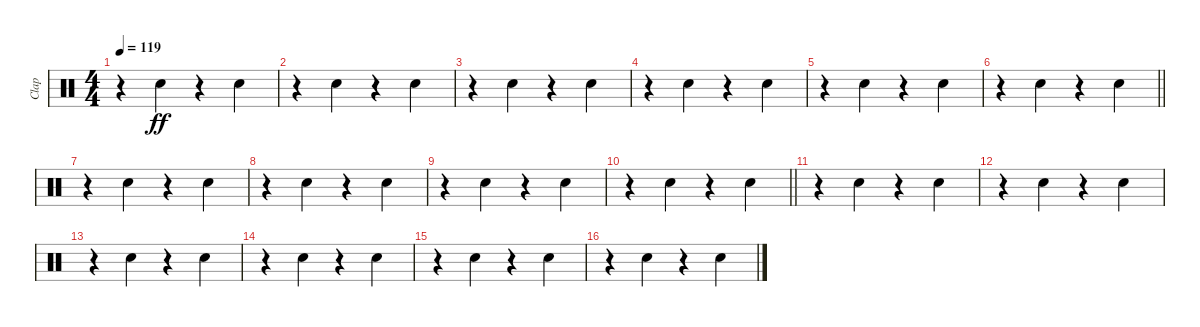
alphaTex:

\track ("Clap" "Clap") {instrument percussion}
\staff {score}
\articulation defaults
\ts (4 4)
\tempo 119
\clef neutral
\ks c
r.4{dy ff} "Hand Clap (hit)".4 r.4 "Hand Clap (hit)".4 |
r.4 "Hand Clap (hit)".4 r.4 "Hand Clap (hit)".4 |
r.4 "Hand Clap (hit)".4 r.4 "Hand Clap (hit)".4 |
r.4 "Hand Clap (hit)".4 r.4 "Hand Clap (hit)".4 |
r.4 "Hand Clap (hit)".4 r.4 "Hand Clap (hit)".4 |
\barLineRight lightlight
r.4 "Hand Clap (hit)".4 r.4 "Hand Clap (hit)".4 |
r.4 "Hand Clap (hit)".4 r.4 "Hand Clap (hit)".4 |
r.4 "Hand Clap (hit)".4 r.4 "Hand Clap (hit)".4 |
r.4 "Hand Clap (hit)".4 r.4 "Hand Clap (hit)".4 |
\barLineRight lightlight
r.4 "Hand Clap (hit)".4 r.4 "Hand Clap (hit)".4 |
r.4 "Hand Clap (hit)".4 r.4 "Hand Clap (hit)".4 |
r.4 "Hand Clap (hit)".4 r.4 "Hand Clap (hit)".4 |
r.4 "Hand Clap (hit)".4 r.4 "Hand Clap (hit)".4 |
r.4 "Hand Clap (hit)".4 r.4 "Hand Clap (hit)".4 |
r.4 "Hand Clap (hit)".4 r.4 "Hand Clap (hit)".4 |
r.4 "Hand Clap (hit)".4 r.4 "Hand Clap (hit)".4
